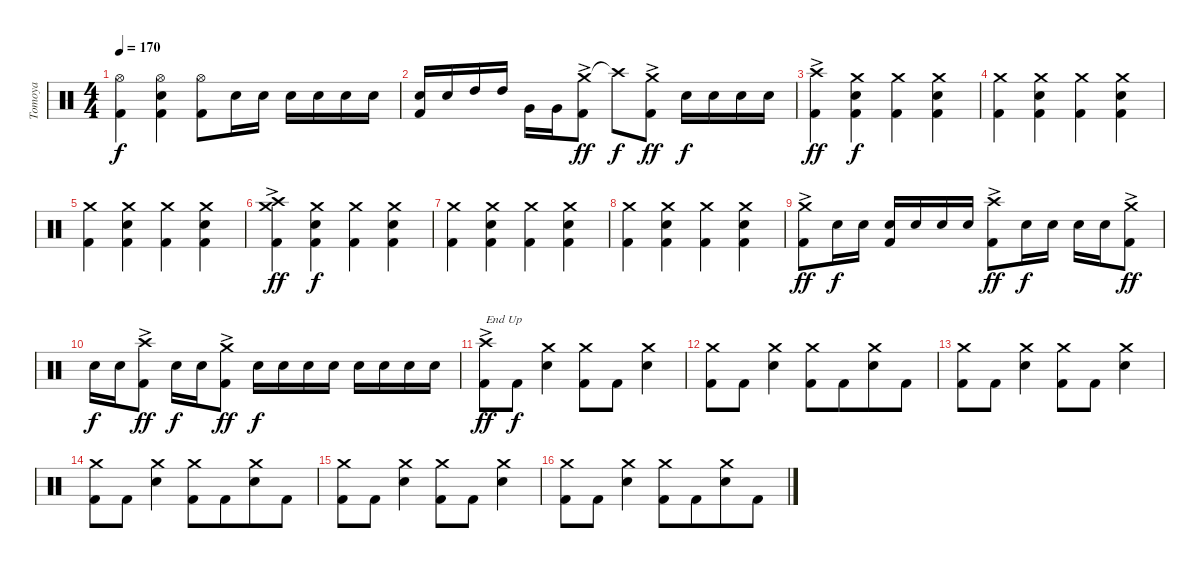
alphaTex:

\track ("Tomoya" "Tomoya") {instrument percussion}
\staff {score}
\articulation defaults
\ts (4 4)
\tempo 170
\clef neutral
\ks c
("Hi-Hat (open)" "Kick (hit) 2").4{dy f} ("Hi-Hat (open)" "Snare (hit) 2" "Kick (hit) 2").4 ("Hi-Hat (open)" "Kick (hit) 2").8 "Snare (hit) 2".16 "Snare (hit) 2".16 "Snare (hit) 2".16 "Snare (hit) 2".16 "Snare (hit) 2".16 "Snare (hit) 2".16 |
("Snare (hit) 2" "Kick (hit) 2").16 "Snare (hit) 2".16 "High Tom (hit)".16 "High Tom (hit)".16 "Very Low Tom (hit)".16 "Very Low Tom (hit)".16 ("Crash medium (hit)"{ac} "Kick (hit) 2"{ac}).8{dy ff} "Crash high (hit)"{t}.8{dy f} ("Crash medium (hit)"{ac} "Kick (hit) 2"{ac}).8{dy ff} "Snare (hit) 2".16{dy f} "Snare (hit) 2".16 "Snare (hit) 2".16 "Snare (hit) 2".16 |
("Crash high (hit)"{ac} "Kick (hit) 2"{ac}).4{dy ff} ("Crash medium (hit)" "Snare (hit) 2" "Kick (hit) 2").4{dy f} ("Crash medium (hit)" "Kick (hit) 2").4 ("Crash medium (hit)" "Snare (hit) 2" "Kick (hit) 2").4 |
("Crash medium (hit)" "Kick (hit) 2").4 ("Crash medium (hit)" "Snare (hit) 2" "Kick (hit) 2").4 ("Crash medium (hit)" "Kick (hit) 2").4 ("Crash medium (hit)" "Snare (hit) 2" "Kick (hit) 2").4 |
("Crash medium (hit)" "Kick (hit) 2").4 ("Crash medium (hit)" "Snare (hit) 2" "Kick (hit) 2").4 ("Crash medium (hit)" "Kick (hit) 2").4 ("Crash medium (hit)" "Snare (hit) 2" "Kick (hit) 2").4 |
("Crash medium (hit)"{ac} "Crash high (hit)" "Kick (hit) 2"{ac}).4{dy ff} ("Crash medium (hit)" "Snare (hit) 2" "Kick (hit) 2").4{dy f} ("Crash medium (hit)" "Kick (hit) 2").4 ("Crash medium (hit)" "Snare (hit) 2" "Kick (hit) 2").4 |
("Crash medium (hit)" "Kick (hit) 2").4 ("Crash medium (hit)" "Snare (hit) 2" "Kick (hit) 2").4 ("Crash medium (hit)" "Kick (hit) 2").4 ("Crash medium (hit)" "Snare (hit) 2" "Kick (hit) 2").4 |
("Crash medium (hit)" "Kick (hit) 2").4 ("Crash medium (hit)" "Snare (hit) 2" "Kick (hit) 2").4 ("Crash medium (hit)" "Kick (hit) 2").4 ("Crash medium (hit)" "Snare (hit) 2" "Kick (hit) 2").4 |
("Crash medium (hit)"{ac} "Kick (hit) 2"{ac}).8{dy ff} "Snare (hit) 2".16{dy f} "Snare (hit) 2".16 ("Snare (hit) 2" "Kick (hit) 2").16 "Snare (hit) 2".16 "Snare (hit) 2".16 "Snare (hit) 2".16 ("Crash high (hit)"{ac} "Kick (hit) 2"{ac}).8{dy ff} "Snare (hit) 2".16{dy f} "Snare (hit) 2".16 "Snare (hit) 2".16 "Snare (hit) 2".16 ("Crash medium (hit)"{ac} "Kick (hit) 2"{ac}).8{dy ff} |
"Snare (hit) 2".16{dy f beam Down} "Snare (hit) 2".16{beam Down} ("Crash high (hit)"{ac} "Kick (hit) 2"{ac}).8{dy ff beam Down} "Snare (hit) 2".16{dy f beam Down} "Snare (hit) 2".16{beam Down} ("Crash medium (hit)"{ac} "Kick (hit) 2"{ac}).8{dy ff beam Down} "Snare (hit) 2".16{dy f} "Snare (hit) 2".16 "Snare (hit) 2".16 "Snare (hit) 2".16 "Snare (hit) 2".16 "Snare (hit) 2".16 "Snare (hit) 2".16 "Snare (hit) 2".16 |
("Crash high (hit)"{ac} "Kick (hit) 2"{ac}).8{txt "End Up" dy ff} "Kick (hit) 2".8{dy f} ("Crash medium (hit)" "Snare (hit) 2").4 ("Crash medium (hit)" "Kick (hit) 2").8 "Kick (hit) 2".8 ("Crash medium (hit)" "Snare (hit) 2").4 |
("Crash medium (hit)" "Kick (hit) 2").8 "Kick (hit) 2".8 ("Crash medium (hit)" "Snare (hit) 2").4 ("Crash medium (hit)" "Kick (hit) 2").8 "Kick (hit) 2".8{beam merge} ("Crash medium (hit)" "Snare (hit) 2").8 "Kick (hit) 2".8 |
("Crash medium (hit)" "Kick (hit) 2").8 "Kick (hit) 2".8 ("Crash medium (hit)" "Snare (hit) 2").4 ("Crash medium (hit)" "Kick (hit) 2").8 "Kick (hit) 2".8 ("Crash medium (hit)" "Snare (hit) 2").4 |
("Crash medium (hit)" "Kick (hit) 2").8 "Kick (hit) 2".8 ("Crash medium (hit)" "Snare (hit) 2").4 ("Crash medium (hit)" "Kick (hit) 2").8 "Kick (hit) 2".8{beam merge} ("Crash medium (hit)" "Snare (hit) 2").8 "Kick (hit) 2".8 |
("Crash medium (hit)" "Kick (hit) 2").8 "Kick (hit) 2".8 ("Crash medium (hit)" "Snare (hit) 2").4 ("Crash medium (hit)" "Kick (hit) 2").8 "Kick (hit) 2".8 ("Crash medium (hit)" "Snare (hit) 2").4 |
("Crash medium (hit)" "Kick (hit) 2").8 "Kick (hit) 2".8 ("Crash medium (hit)" "Snare (hit) 2").4 ("Crash medium (hit)" "Kick (hit) 2").8 "Kick (hit) 2".8{beam merge} ("Crash medium (hit)" "Snare (hit) 2").8 "Kick (hit) 2".8
